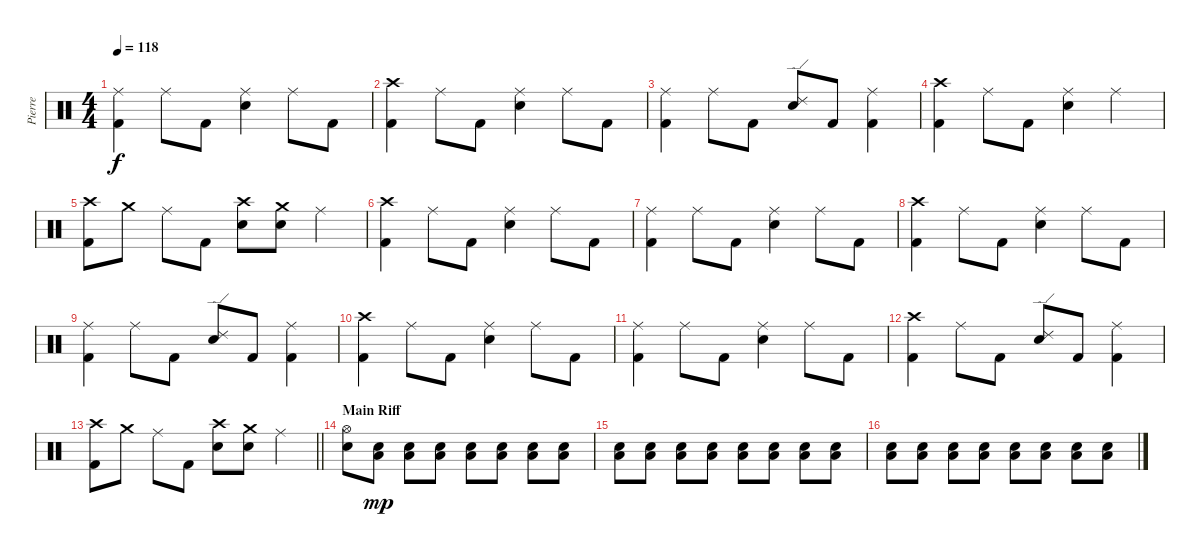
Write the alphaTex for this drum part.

\track ("Pierre" "Pierre") {instrument percussion}
\staff {score}
\articulation defaults
\ts (4 4)
\tempo 118
\clef neutral
\ks c
("Ride (middle)" "Kick (hit) 2").4{dy f} "Ride (middle)".8 "Kick (hit) 2".8 ("Ride (middle)" "Snare (hit) 2").4 "Ride (middle)".8 "Kick (hit) 2".8 |
("Crash high (hit)" "Kick (hit) 2").4 "Ride (middle)".8 "Kick (hit) 2".8 ("Ride (middle)" "Snare (hit) 2").4 "Ride (middle)".8 "Kick (hit) 2".8 |
("Ride (middle)" "Kick (hit) 2").4 "Ride (middle)".8 "Kick (hit) 2".8 ("Ride (edge) 2" "Electric Snare (hit)").8 "Kick (hit) 2".8 ("Ride (middle)" "Kick (hit) 2").4 |
("Crash high (hit)" "Kick (hit) 2").4 "Ride (middle)".8 "Kick (hit) 2".8 ("Ride (middle)" "Snare (hit) 2").4 "Ride (middle)".4 |
("Crash high (hit)" "Kick (hit) 2").8 "Crash medium (hit)".8 "Ride (middle)".8 "Kick (hit) 2".8 ("Crash high (hit)" "Snare (hit) 2").8 ("Crash medium (hit)" "Snare (hit) 2").8 "Ride (middle)".4 |
("Crash high (hit)" "Kick (hit) 2").4 "Ride (middle)".8 "Kick (hit) 2".8 ("Ride (middle)" "Snare (hit) 2").4 "Ride (middle)".8 "Kick (hit) 2".8 |
("Ride (middle)" "Kick (hit) 2").4 "Ride (middle)".8 "Kick (hit) 2".8 ("Ride (middle)" "Snare (hit) 2").4 "Ride (middle)".8 "Kick (hit) 2".8 |
("Crash high (hit)" "Kick (hit) 2").4 "Ride (middle)".8 "Kick (hit) 2".8 ("Ride (middle)" "Snare (hit) 2").4 "Ride (middle)".8 "Kick (hit) 2".8 |
("Ride (middle)" "Kick (hit) 2").4 "Ride (middle)".8 "Kick (hit) 2".8 ("Ride (edge) 2" "Electric Snare (hit)").8 "Kick (hit) 2".8 ("Ride (middle)" "Kick (hit) 2").4 |
("Crash high (hit)" "Kick (hit) 2").4 "Ride (middle)".8 "Kick (hit) 2".8 ("Ride (middle)" "Snare (hit) 2").4 "Ride (middle)".8 "Kick (hit) 2".8 |
("Ride (middle)" "Kick (hit) 2").4 "Ride (middle)".8 "Kick (hit) 2".8 ("Ride (middle)" "Snare (hit) 2").4 "Ride (middle)".8 "Kick (hit) 2".8 |
("Crash high (hit)" "Kick (hit) 2").4 "Ride (middle)".8 "Kick (hit) 2".8 ("Ride (edge) 2" "Electric Snare (hit)").8 "Kick (hit) 2".8 ("Ride (middle)" "Kick (hit) 2").4 |
\barLineRight lightlight
("Crash high (hit)" "Kick (hit) 2").8 "Crash medium (hit)".8 "Ride (middle)".8 "Kick (hit) 2".8 ("Crash high (hit)" "Snare (hit) 2").8 ("Crash medium (hit)" "Snare (hit) 2").8 "Ride (middle)".4 |
\section ("" "Main Riff")
("Hi-Hat (open)" "Snare (hit) 2").8 ("Snare (hit) 2" "Low Tom (hit)").8{dy mp} ("Snare (hit) 2" "Low Tom (hit)").8 ("Snare (hit) 2" "Low Tom (hit)").8 ("Snare (hit) 2" "Low Tom (hit)").8 ("Snare (hit) 2" "Low Tom (hit)").8 ("Snare (hit) 2" "Low Tom (hit)").8 ("Snare (hit) 2" "Low Tom (hit)").8 |
("Snare (hit) 2" "Low Tom (hit)").8 ("Snare (hit) 2" "Low Tom (hit)").8 ("Snare (hit) 2" "Low Tom (hit)").8 ("Snare (hit) 2" "Low Tom (hit)").8 ("Snare (hit) 2" "Low Tom (hit)").8 ("Snare (hit) 2" "Low Tom (hit)").8 ("Snare (hit) 2" "Low Tom (hit)").8 ("Snare (hit) 2" "Low Tom (hit)").8 |
("Snare (hit) 2" "Low Tom (hit)").8 ("Snare (hit) 2" "Low Tom (hit)").8 ("Snare (hit) 2" "Low Tom (hit)").8 ("Snare (hit) 2" "Low Tom (hit)").8 ("Snare (hit) 2" "Low Tom (hit)").8 ("Snare (hit) 2" "Low Tom (hit)").8 ("Snare (hit) 2" "Low Tom (hit)").8 ("Snare (hit) 2" "Low Tom (hit)").8
